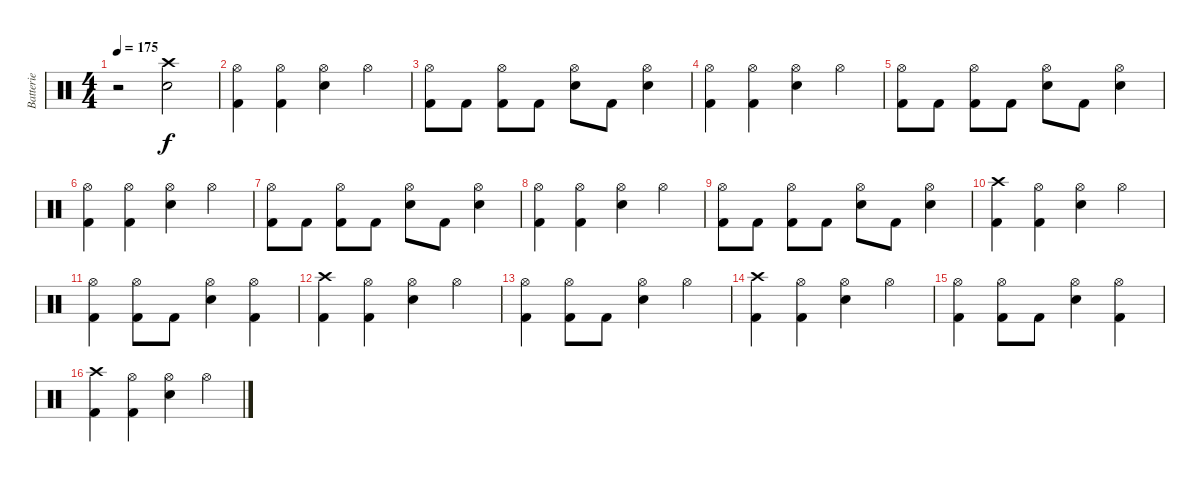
\track ("Batterie" "Batterie") {instrument percussion}
\staff {score}
\articulation defaults
\ts (4 4)
\tempo 175
\clef neutral
\ks c
r.2{dy f} ("Crash high (hit)" "Electric Snare (hit)").2 |
("Hi-Hat (open)" "Kick (hit) 2").4 ("Hi-Hat (open)" "Kick (hit) 2").4 ("Hi-Hat (open)" "Electric Snare (hit)").4 "Hi-Hat (open)".4 |
("Hi-Hat (open)" "Kick (hit) 2").8 "Kick (hit) 2".8 ("Hi-Hat (open)" "Kick (hit) 2").8 "Kick (hit) 2".8 ("Hi-Hat (open)" "Electric Snare (hit)").8 "Kick (hit) 2".8 ("Hi-Hat (open)" "Electric Snare (hit)").4 |
("Hi-Hat (open)" "Kick (hit) 2").4 ("Hi-Hat (open)" "Kick (hit) 2").4 ("Hi-Hat (open)" "Electric Snare (hit)").4 "Hi-Hat (open)".4 |
("Hi-Hat (open)" "Kick (hit) 2").8 "Kick (hit) 2".8 ("Hi-Hat (open)" "Kick (hit) 2").8 "Kick (hit) 2".8 ("Hi-Hat (open)" "Electric Snare (hit)").8 "Kick (hit) 2".8 ("Hi-Hat (open)" "Electric Snare (hit)").4 |
("Hi-Hat (open)" "Kick (hit) 2").4 ("Hi-Hat (open)" "Kick (hit) 2").4 ("Hi-Hat (open)" "Electric Snare (hit)").4 "Hi-Hat (open)".4 |
("Hi-Hat (open)" "Kick (hit) 2").8 "Kick (hit) 2".8 ("Hi-Hat (open)" "Kick (hit) 2").8 "Kick (hit) 2".8 ("Hi-Hat (open)" "Electric Snare (hit)").8 "Kick (hit) 2".8 ("Hi-Hat (open)" "Electric Snare (hit)").4 |
("Hi-Hat (open)" "Kick (hit) 2").4 ("Hi-Hat (open)" "Kick (hit) 2").4 ("Hi-Hat (open)" "Electric Snare (hit)").4 "Hi-Hat (open)".4 |
("Hi-Hat (open)" "Kick (hit) 2").8 "Kick (hit) 2".8 ("Hi-Hat (open)" "Kick (hit) 2").8 "Kick (hit) 2".8 ("Hi-Hat (open)" "Electric Snare (hit)").8 "Kick (hit) 2".8 ("Hi-Hat (open)" "Electric Snare (hit)").4 |
("Crash high (hit)" "Kick (hit) 2").4 ("Hi-Hat (open)" "Kick (hit) 2").4 ("Hi-Hat (open)" "Electric Snare (hit)").4 "Hi-Hat (open)".4 |
("Hi-Hat (open)" "Kick (hit) 2").4 ("Hi-Hat (open)" "Kick (hit) 2").8 "Kick (hit) 2".8 ("Hi-Hat (open)" "Electric Snare (hit)").4 ("Hi-Hat (open)" "Kick (hit) 2").4 |
("Crash high (hit)" "Kick (hit) 2").4 ("Hi-Hat (open)" "Kick (hit) 2").4 ("Hi-Hat (open)" "Electric Snare (hit)").4 "Hi-Hat (open)".4 |
("Hi-Hat (open)" "Kick (hit) 2").4 ("Hi-Hat (open)" "Kick (hit) 2").8 "Kick (hit) 2".8 ("Hi-Hat (open)" "Electric Snare (hit)").4 "Hi-Hat (open)".4 |
("Crash high (hit)" "Kick (hit) 2").4 ("Hi-Hat (open)" "Kick (hit) 2").4 ("Hi-Hat (open)" "Electric Snare (hit)").4 "Hi-Hat (open)".4 |
("Hi-Hat (open)" "Kick (hit) 2").4 ("Hi-Hat (open)" "Kick (hit) 2").8 "Kick (hit) 2".8 ("Hi-Hat (open)" "Electric Snare (hit)").4 ("Hi-Hat (open)" "Kick (hit) 2").4 |
("Crash high (hit)" "Kick (hit) 2").4 ("Hi-Hat (open)" "Kick (hit) 2").4 ("Hi-Hat (open)" "Electric Snare (hit)").4 "Hi-Hat (open)".4
